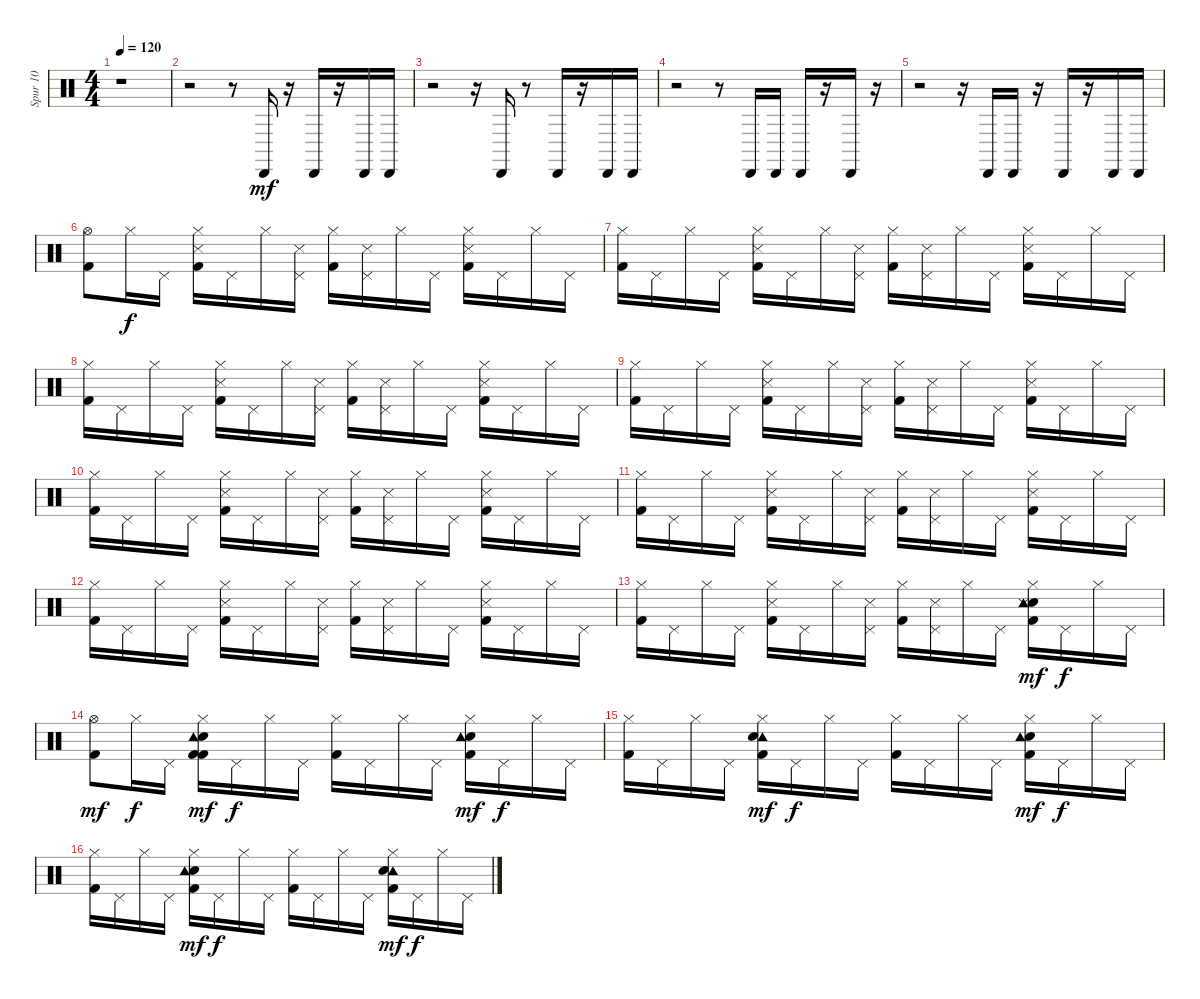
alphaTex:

\track ("Spur 10" "Spur 10") {instrument percussion}
\staff {score}
\articulation defaults
\ts (4 4)
\tempo 120
\clef neutral
\ks c
r.1{dy mf} |
r.2 r.8 "Cabasa (hit)".16 r.16 "Cabasa (hit)".16 r.16 "Cabasa (hit)".16 "Cabasa (hit)".16 |
r.2 r.16 "Cabasa (hit)".16 r.8 "Cabasa (hit)".16 r.16 "Cabasa (hit)".16 "Cabasa (hit)".16 |
r.2 r.8 "Cabasa (hit)".16 "Cabasa (hit)".16 "Cabasa (hit)".16 r.16 "Cabasa (hit)".16 r.16 |
r.2 r.16 "Cabasa (hit)".16 "Cabasa (hit)".16 r.16 "Cabasa (hit)".16 r.16 "Cabasa (hit)".16 "Cabasa (hit)".16 |
("Kick (hit) 2" "Hi-Hat (open)").8 "Hi-Hat (closed)".16{dy f} "Pedal Hi-Hat (hit)".16 ("Kick (hit) 2" "Snare (side stick) 3" "Hi-Hat (closed)").16 "Pedal Hi-Hat (hit)".16 "Hi-Hat (closed)".16 ("Snare (side stick) 3" "Pedal Hi-Hat (hit)").16 ("Kick (hit) 2" "Hi-Hat (closed)").16 ("Snare (side stick) 3" "Pedal Hi-Hat (hit)").16 "Hi-Hat (closed)".16 "Pedal Hi-Hat (hit)".16 ("Snare (side stick) 3" "Kick (hit) 2" "Hi-Hat (closed)").16 "Pedal Hi-Hat (hit)".16 "Hi-Hat (closed)".16 "Pedal Hi-Hat (hit)".16 |
("Kick (hit) 2" "Hi-Hat (closed)").16 "Pedal Hi-Hat (hit)".16 "Hi-Hat (closed)".16 "Pedal Hi-Hat (hit)".16 ("Kick (hit) 2" "Snare (side stick) 3" "Hi-Hat (closed)").16 "Pedal Hi-Hat (hit)".16 "Hi-Hat (closed)".16 ("Snare (side stick) 3" "Pedal Hi-Hat (hit)").16 ("Kick (hit) 2" "Hi-Hat (closed)").16 ("Snare (side stick) 3" "Pedal Hi-Hat (hit)").16 "Hi-Hat (closed)".16 "Pedal Hi-Hat (hit)".16 ("Snare (side stick) 3" "Kick (hit) 2" "Hi-Hat (closed)").16 "Pedal Hi-Hat (hit)".16 "Hi-Hat (closed)".16 "Pedal Hi-Hat (hit)".16 |
("Kick (hit) 2" "Hi-Hat (closed)").16 "Pedal Hi-Hat (hit)".16 "Hi-Hat (closed)".16 "Pedal Hi-Hat (hit)".16 ("Kick (hit) 2" "Snare (side stick) 3" "Hi-Hat (closed)").16 "Pedal Hi-Hat (hit)".16 "Hi-Hat (closed)".16 ("Snare (side stick) 3" "Pedal Hi-Hat (hit)").16 ("Kick (hit) 2" "Hi-Hat (closed)").16 ("Snare (side stick) 3" "Pedal Hi-Hat (hit)").16 "Hi-Hat (closed)".16 "Pedal Hi-Hat (hit)".16 ("Snare (side stick) 3" "Kick (hit) 2" "Hi-Hat (closed)").16 "Pedal Hi-Hat (hit)".16 "Hi-Hat (closed)".16 "Pedal Hi-Hat (hit)".16 |
("Kick (hit) 2" "Hi-Hat (closed)").16 "Pedal Hi-Hat (hit)".16 "Hi-Hat (closed)".16 "Pedal Hi-Hat (hit)".16 ("Snare (side stick) 3" "Kick (hit) 2" "Hi-Hat (closed)").16 "Pedal Hi-Hat (hit)".16 "Hi-Hat (closed)".16 ("Snare (side stick) 3" "Pedal Hi-Hat (hit)").16 ("Kick (hit) 2" "Hi-Hat (closed)").16 ("Snare (side stick) 3" "Pedal Hi-Hat (hit)").16 "Hi-Hat (closed)".16 "Pedal Hi-Hat (hit)".16 ("Snare (side stick) 3" "Kick (hit) 2" "Hi-Hat (closed)").16 "Pedal Hi-Hat (hit)".16 "Hi-Hat (closed)".16 "Pedal Hi-Hat (hit)".16 |
("Kick (hit) 2" "Hi-Hat (closed)").16 "Pedal Hi-Hat (hit)".16 "Hi-Hat (closed)".16 "Pedal Hi-Hat (hit)".16 ("Snare (side stick) 3" "Kick (hit) 2" "Hi-Hat (closed)").16 "Pedal Hi-Hat (hit)".16 "Hi-Hat (closed)".16 ("Snare (side stick) 3" "Pedal Hi-Hat (hit)").16 ("Kick (hit) 2" "Hi-Hat (closed)").16 ("Snare (side stick) 3" "Pedal Hi-Hat (hit)").16 "Hi-Hat (closed)".16 "Pedal Hi-Hat (hit)".16 ("Snare (side stick) 3" "Kick (hit) 2" "Hi-Hat (closed)").16 "Pedal Hi-Hat (hit)".16 "Hi-Hat (closed)".16 "Pedal Hi-Hat (hit)".16 |
("Kick (hit) 2" "Hi-Hat (closed)").16 "Pedal Hi-Hat (hit)".16 "Hi-Hat (closed)".16 "Pedal Hi-Hat (hit)".16 ("Snare (side stick) 3" "Kick (hit) 2" "Hi-Hat (closed)").16 "Pedal Hi-Hat (hit)".16 "Hi-Hat (closed)".16 ("Snare (side stick) 3" "Pedal Hi-Hat (hit)").16 ("Kick (hit) 2" "Hi-Hat (closed)").16 ("Snare (side stick) 3" "Pedal Hi-Hat (hit)").16 "Hi-Hat (closed)".16 "Pedal Hi-Hat (hit)".16 ("Kick (hit) 2" "Snare (side stick) 3" "Hi-Hat (closed)").16 "Pedal Hi-Hat (hit)".16 "Hi-Hat (closed)".16 "Pedal Hi-Hat (hit)".16 |
("Kick (hit) 2" "Hi-Hat (closed)").16 "Pedal Hi-Hat (hit)".16 "Hi-Hat (closed)".16 "Pedal Hi-Hat (hit)".16 ("Snare (side stick) 3" "Kick (hit) 2" "Hi-Hat (closed)").16 "Pedal Hi-Hat (hit)".16 "Hi-Hat (closed)".16 ("Snare (side stick) 3" "Pedal Hi-Hat (hit)").16 ("Kick (hit) 2" "Hi-Hat (closed)").16 ("Snare (side stick) 3" "Pedal Hi-Hat (hit)").16 "Hi-Hat (closed)".16 "Pedal Hi-Hat (hit)".16 ("Kick (hit) 2" "Snare (side stick) 3" "Hi-Hat (closed)").16 "Pedal Hi-Hat (hit)".16 "Hi-Hat (closed)".16 "Pedal Hi-Hat (hit)".16 |
("Kick (hit) 2" "Hi-Hat (closed)").16 "Pedal Hi-Hat (hit)".16 "Hi-Hat (closed)".16 "Pedal Hi-Hat (hit)".16 ("Kick (hit) 2" "Snare (side stick) 3" "Hi-Hat (closed)").16 "Pedal Hi-Hat (hit)".16 "Hi-Hat (closed)".16 ("Snare (side stick) 3" "Pedal Hi-Hat (hit)").16 ("Kick (hit) 2" "Hi-Hat (closed)").16 ("Snare (side stick) 3" "Pedal Hi-Hat (hit)").16 "Hi-Hat (closed)".16 "Pedal Hi-Hat (hit)".16 ("Kick (hit) 2" "Snare (hit) 2" "Snare (side stick) 3" "Tambourine (hit)" "Hi-Hat (closed)").16{dy mf} "Pedal Hi-Hat (hit)".16{dy f} "Hi-Hat (closed)".16 "Pedal Hi-Hat (hit)".16 |
("Kick (hit) 2" "Hi-Hat (open)").8{dy mf} "Hi-Hat (closed)".16{dy f} "Pedal Hi-Hat (hit)".16 ("Snare (hit) 2" "Kick (hit) 2" "Kick (hit) 2" "Tambourine (hit)" "Hi-Hat (closed)").16{dy mf} "Pedal Hi-Hat (hit)".16{dy f} "Hi-Hat (closed)".16 "Pedal Hi-Hat (hit)".16 ("Kick (hit) 2" "Hi-Hat (closed)").16 "Pedal Hi-Hat (hit)".16 "Hi-Hat (closed)".16 "Pedal Hi-Hat (hit)".16 ("Kick (hit) 2" "Snare (hit) 2" "Tambourine (hit)" "Hi-Hat (closed)").16{dy mf} "Pedal Hi-Hat (hit)".16{dy f} "Hi-Hat (closed)".16 "Pedal Hi-Hat (hit)".16 |
("Kick (hit) 2" "Hi-Hat (closed)").16 "Pedal Hi-Hat (hit)".16 "Hi-Hat (closed)".16 "Pedal Hi-Hat (hit)".16 ("Tambourine (hit)" "Kick (hit) 2" "Snare (hit) 2" "Hi-Hat (closed)").16{dy mf} "Pedal Hi-Hat (hit)".16{dy f} "Hi-Hat (closed)".16 "Pedal Hi-Hat (hit)".16 ("Kick (hit) 2" "Hi-Hat (closed)").16 "Pedal Hi-Hat (hit)".16 "Hi-Hat (closed)".16 "Pedal Hi-Hat (hit)".16 ("Kick (hit) 2" "Snare (hit) 2" "Tambourine (hit)" "Hi-Hat (closed)").16{dy mf} "Pedal Hi-Hat (hit)".16{dy f} "Hi-Hat (closed)".16 "Pedal Hi-Hat (hit)".16 |
("Kick (hit) 2" "Hi-Hat (closed)").16 "Pedal Hi-Hat (hit)".16 "Hi-Hat (closed)".16 "Pedal Hi-Hat (hit)".16 ("Snare (hit) 2" "Kick (hit) 2" "Tambourine (hit)" "Hi-Hat (closed)").16{dy mf} "Pedal Hi-Hat (hit)".16{dy f} "Hi-Hat (closed)".16 "Pedal Hi-Hat (hit)".16 ("Kick (hit) 2" "Hi-Hat (closed)").16 "Pedal Hi-Hat (hit)".16 "Hi-Hat (closed)".16 "Pedal Hi-Hat (hit)".16 ("Kick (hit) 2" "Tambourine (hit)" "Snare (hit) 2" "Hi-Hat (closed)").16{dy mf} "Pedal Hi-Hat (hit)".16{dy f} "Hi-Hat (closed)".16 "Pedal Hi-Hat (hit)".16
